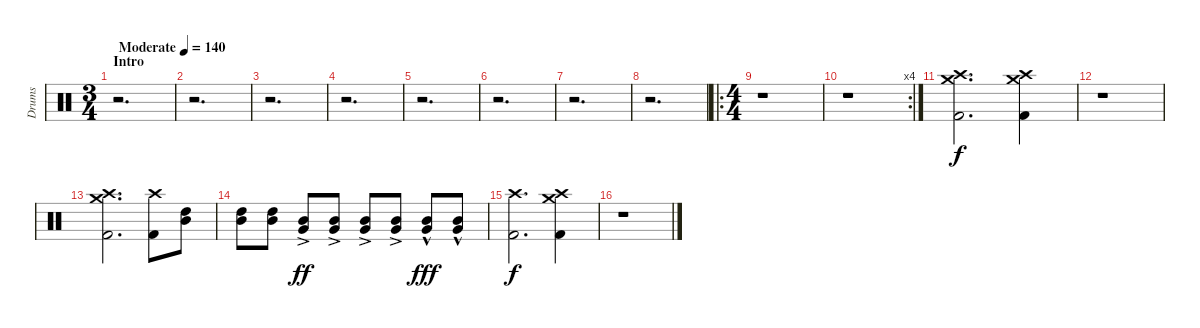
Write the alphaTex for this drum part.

\track ("Drums" "Drums") {instrument percussion}
\staff {score}
\articulation defaults
\ts (3 4)
\section ("" "Intro")
\tempo (140 "Moderate")
\clef neutral
\ks c
r.2{d dy f} |
r.2{d} |
r.2{d} |
r.2{d} |
r.2{d} |
r.2{d} |
r.2{d} |
r.2{d} |
\ro
\ts (4 4)
r.1 |
\rc 4
r.1 |
("Crash medium (hit)" "Crash high (hit)" "Kick (hit) 2").2{d} ("Crash medium (hit)" "Crash high (hit)" "Kick (hit) 2").4 |
r.1 |
("Crash medium (hit)" "Crash high (hit)" "Kick (hit) 2").2{d} ("Crash high (hit)" "Kick (hit) 2").8 ("High Tom (hit)" "Mid Tom (hit)").8 |
("High Tom (hit)" "Mid Tom (hit)").8 ("High Tom (hit)" "Mid Tom (hit)").8 ("Mid Tom (hit)"{ac} "Very Low Tom (hit)"{ac}).8{dy ff} ("Mid Tom (hit)"{ac} "Very Low Tom (hit)"{ac}).8 ("Mid Tom (hit)"{ac} "Very Low Tom (hit)"{ac}).8 ("Mid Tom (hit)"{ac} "Very Low Tom (hit)"{ac}).8 ("Mid Tom (hit)"{hac} "Very Low Tom (hit)"{hac}).8{dy fff} ("Mid Tom (hit)"{hac} "Very Low Tom (hit)"{hac}).8 |
("Crash high (hit)" "Kick (hit) 2").2{d dy f} ("Crash medium (hit)" "Crash high (hit)" "Kick (hit) 2").4 |
r.1
